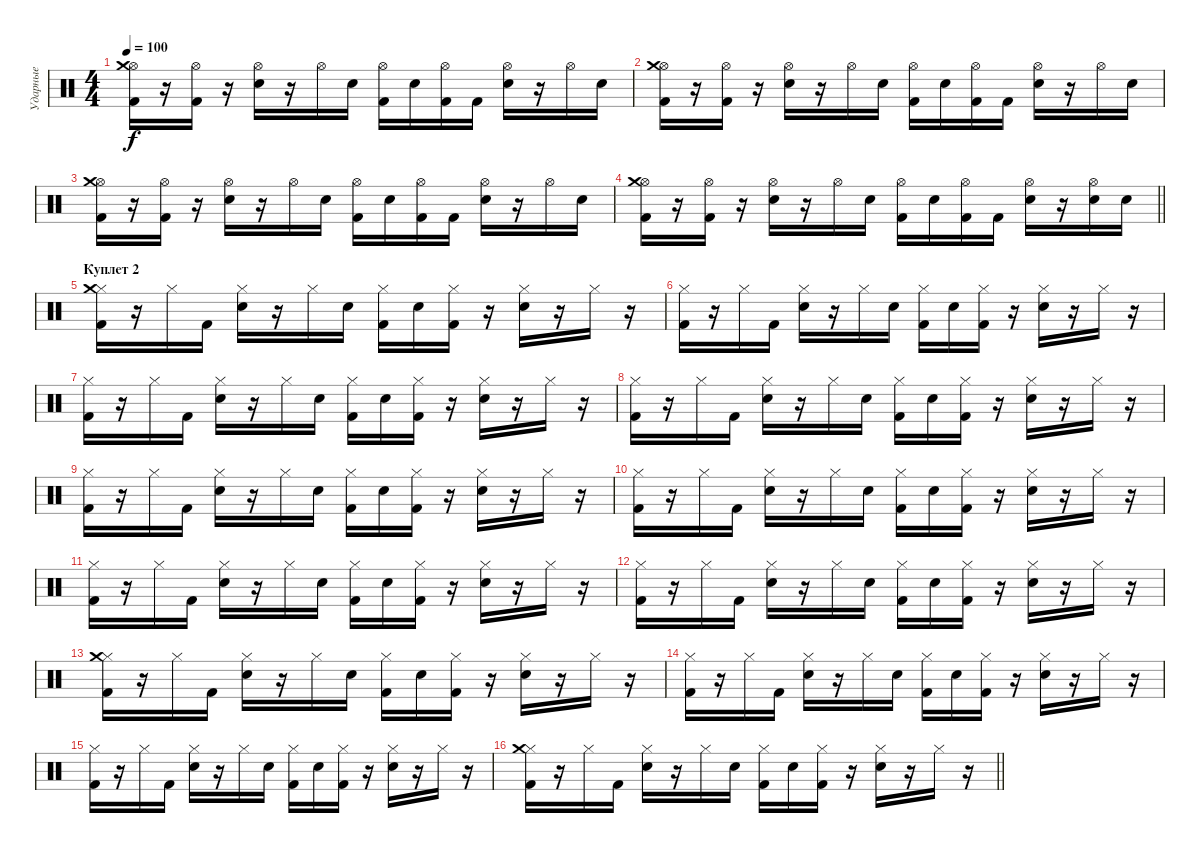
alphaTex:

\track ("Ударные" "Ударные") {instrument percussion}
\staff {score}
\articulation defaults
\ts (4 4)
\tempo 100
\clef neutral
\ks c
("Hi-Hat (open)" "Kick (hit) 2" "Crash medium (hit)").16{dy f} r.16 ("Hi-Hat (open)" "Kick (hit) 2").16 r.16 ("Hi-Hat (open)" "Electric Snare (hit)").16 r.16 "Hi-Hat (open)".16 "Electric Snare (hit)".16 ("Hi-Hat (open)" "Kick (hit) 2").16 "Electric Snare (hit)".16 ("Hi-Hat (open)" "Kick (hit) 2").16 "Kick (hit) 2".16 ("Hi-Hat (open)" "Electric Snare (hit)").16 r.16 "Hi-Hat (open)".16 "Electric Snare (hit)".16 |
("Hi-Hat (open)" "Kick (hit) 2" "Crash medium (hit)").16 r.16 ("Hi-Hat (open)" "Kick (hit) 2").16 r.16 ("Hi-Hat (open)" "Electric Snare (hit)").16 r.16 "Hi-Hat (open)".16 "Electric Snare (hit)".16 ("Hi-Hat (open)" "Kick (hit) 2").16 "Electric Snare (hit)".16 ("Hi-Hat (open)" "Kick (hit) 2").16 "Kick (hit) 2".16 ("Hi-Hat (open)" "Electric Snare (hit)").16 r.16 "Hi-Hat (open)".16 "Electric Snare (hit)".16 |
("Hi-Hat (open)" "Kick (hit) 2" "Crash medium (hit)").16 r.16 ("Hi-Hat (open)" "Kick (hit) 2").16 r.16 ("Hi-Hat (open)" "Electric Snare (hit)").16 r.16 "Hi-Hat (open)".16 "Electric Snare (hit)".16 ("Hi-Hat (open)" "Kick (hit) 2").16 "Electric Snare (hit)".16 ("Hi-Hat (open)" "Kick (hit) 2").16 "Kick (hit) 2".16 ("Hi-Hat (open)" "Electric Snare (hit)").16 r.16 "Hi-Hat (open)".16 "Electric Snare (hit)".16 |
\barLineRight lightlight
("Hi-Hat (open)" "Kick (hit) 2" "Crash medium (hit)").16 r.16 ("Hi-Hat (open)" "Kick (hit) 2").16 r.16 ("Hi-Hat (open)" "Electric Snare (hit)").16 r.16 "Hi-Hat (open)".16 "Electric Snare (hit)".16 ("Hi-Hat (open)" "Kick (hit) 2").16 "Electric Snare (hit)".16 ("Hi-Hat (open)" "Kick (hit) 2").16 "Kick (hit) 2".16 ("Hi-Hat (open)" "Electric Snare (hit)").16 r.16 ("Hi-Hat (open)" "Electric Snare (hit)").16 "Electric Snare (hit)".16 |
\section ("" "Куплет 2")
("Hi-Hat (closed)" "Kick (hit) 2" "Crash medium (hit)").16 r.16 "Hi-Hat (closed)".16 "Kick (hit) 2".16 ("Hi-Hat (closed)" "Electric Snare (hit)").16 r.16 "Hi-Hat (closed)".16 "Electric Snare (hit)".16 ("Hi-Hat (closed)" "Kick (hit) 2").16 "Electric Snare (hit)".16 ("Hi-Hat (closed)" "Kick (hit) 2").16 r.16 ("Hi-Hat (closed)" "Electric Snare (hit)").16 r.16 "Hi-Hat (closed)".16 r.16 |
("Hi-Hat (closed)" "Kick (hit) 2").16 r.16 "Hi-Hat (closed)".16 "Kick (hit) 2".16 ("Hi-Hat (closed)" "Electric Snare (hit)").16 r.16 "Hi-Hat (closed)".16 "Electric Snare (hit)".16 ("Hi-Hat (closed)" "Kick (hit) 2").16 "Electric Snare (hit)".16 ("Hi-Hat (closed)" "Kick (hit) 2").16 r.16 ("Hi-Hat (closed)" "Electric Snare (hit)").16 r.16 "Hi-Hat (closed)".16 r.16 |
("Hi-Hat (closed)" "Kick (hit) 2").16 r.16 "Hi-Hat (closed)".16 "Kick (hit) 2".16 ("Hi-Hat (closed)" "Electric Snare (hit)").16 r.16 "Hi-Hat (closed)".16 "Electric Snare (hit)".16 ("Hi-Hat (closed)" "Kick (hit) 2").16 "Electric Snare (hit)".16 ("Hi-Hat (closed)" "Kick (hit) 2").16 r.16 ("Hi-Hat (closed)" "Electric Snare (hit)").16 r.16 "Hi-Hat (closed)".16 r.16 |
("Hi-Hat (closed)" "Kick (hit) 2").16 r.16 "Hi-Hat (closed)".16 "Kick (hit) 2".16 ("Hi-Hat (closed)" "Electric Snare (hit)").16 r.16 "Hi-Hat (closed)".16 "Electric Snare (hit)".16 ("Hi-Hat (closed)" "Kick (hit) 2").16 "Electric Snare (hit)".16 ("Hi-Hat (closed)" "Kick (hit) 2").16 r.16 ("Hi-Hat (closed)" "Electric Snare (hit)").16 r.16 "Hi-Hat (closed)".16 r.16 |
("Hi-Hat (closed)" "Kick (hit) 2").16 r.16 "Hi-Hat (closed)".16 "Kick (hit) 2".16 ("Hi-Hat (closed)" "Electric Snare (hit)").16 r.16 "Hi-Hat (closed)".16 "Electric Snare (hit)".16 ("Hi-Hat (closed)" "Kick (hit) 2").16 "Electric Snare (hit)".16 ("Hi-Hat (closed)" "Kick (hit) 2").16 r.16 ("Hi-Hat (closed)" "Electric Snare (hit)").16 r.16 "Hi-Hat (closed)".16 r.16 |
("Hi-Hat (closed)" "Kick (hit) 2").16 r.16 "Hi-Hat (closed)".16 "Kick (hit) 2".16 ("Hi-Hat (closed)" "Electric Snare (hit)").16 r.16 "Hi-Hat (closed)".16 "Electric Snare (hit)".16 ("Hi-Hat (closed)" "Kick (hit) 2").16 "Electric Snare (hit)".16 ("Hi-Hat (closed)" "Kick (hit) 2").16 r.16 ("Hi-Hat (closed)" "Electric Snare (hit)").16 r.16 "Hi-Hat (closed)".16 r.16 |
("Hi-Hat (closed)" "Kick (hit) 2").16 r.16 "Hi-Hat (closed)".16 "Kick (hit) 2".16 ("Hi-Hat (closed)" "Electric Snare (hit)").16 r.16 "Hi-Hat (closed)".16 "Electric Snare (hit)".16 ("Hi-Hat (closed)" "Kick (hit) 2").16 "Electric Snare (hit)".16 ("Hi-Hat (closed)" "Kick (hit) 2").16 r.16 ("Hi-Hat (closed)" "Electric Snare (hit)").16 r.16 "Hi-Hat (closed)".16 r.16 |
("Hi-Hat (closed)" "Kick (hit) 2").16 r.16 "Hi-Hat (closed)".16 "Kick (hit) 2".16 ("Hi-Hat (closed)" "Electric Snare (hit)").16 r.16 "Hi-Hat (closed)".16 "Electric Snare (hit)".16 ("Hi-Hat (closed)" "Kick (hit) 2").16 "Electric Snare (hit)".16 ("Hi-Hat (closed)" "Kick (hit) 2").16 r.16 ("Hi-Hat (closed)" "Electric Snare (hit)").16 r.16 "Hi-Hat (closed)".16 r.16 |
("Hi-Hat (closed)" "Kick (hit) 2" "Crash medium (hit)").16 r.16 "Hi-Hat (closed)".16 "Kick (hit) 2".16 ("Hi-Hat (closed)" "Electric Snare (hit)").16 r.16 "Hi-Hat (closed)".16 "Electric Snare (hit)".16 ("Hi-Hat (closed)" "Kick (hit) 2").16 "Electric Snare (hit)".16 ("Hi-Hat (closed)" "Kick (hit) 2").16 r.16 ("Hi-Hat (closed)" "Electric Snare (hit)").16 r.16 "Hi-Hat (closed)".16 r.16 |
("Hi-Hat (closed)" "Kick (hit) 2").16 r.16 "Hi-Hat (closed)".16 "Kick (hit) 2".16 ("Hi-Hat (closed)" "Electric Snare (hit)").16 r.16 "Hi-Hat (closed)".16 "Electric Snare (hit)".16 ("Hi-Hat (closed)" "Kick (hit) 2").16 "Electric Snare (hit)".16 ("Hi-Hat (closed)" "Kick (hit) 2").16 r.16 ("Hi-Hat (closed)" "Electric Snare (hit)").16 r.16 "Hi-Hat (closed)".16 r.16 |
("Hi-Hat (closed)" "Kick (hit) 2").16 r.16 "Hi-Hat (closed)".16 "Kick (hit) 2".16 ("Hi-Hat (closed)" "Electric Snare (hit)").16 r.16 "Hi-Hat (closed)".16 "Electric Snare (hit)".16 ("Hi-Hat (closed)" "Kick (hit) 2").16 "Electric Snare (hit)".16 ("Hi-Hat (closed)" "Kick (hit) 2").16 r.16 ("Hi-Hat (closed)" "Electric Snare (hit)").16 r.16 "Hi-Hat (closed)".16 r.16 |
\barLineRight lightlight
("Hi-Hat (closed)" "Kick (hit) 2" "Crash medium (hit)").16 r.16 "Hi-Hat (closed)".16 "Kick (hit) 2".16 ("Hi-Hat (closed)" "Electric Snare (hit)").16 r.16 "Hi-Hat (closed)".16 "Electric Snare (hit)".16 ("Hi-Hat (closed)" "Kick (hit) 2").16 "Electric Snare (hit)".16 ("Hi-Hat (closed)" "Kick (hit) 2").16 r.16 ("Hi-Hat (closed)" "Electric Snare (hit)").16 r.16 "Hi-Hat (closed)".16 r.16
